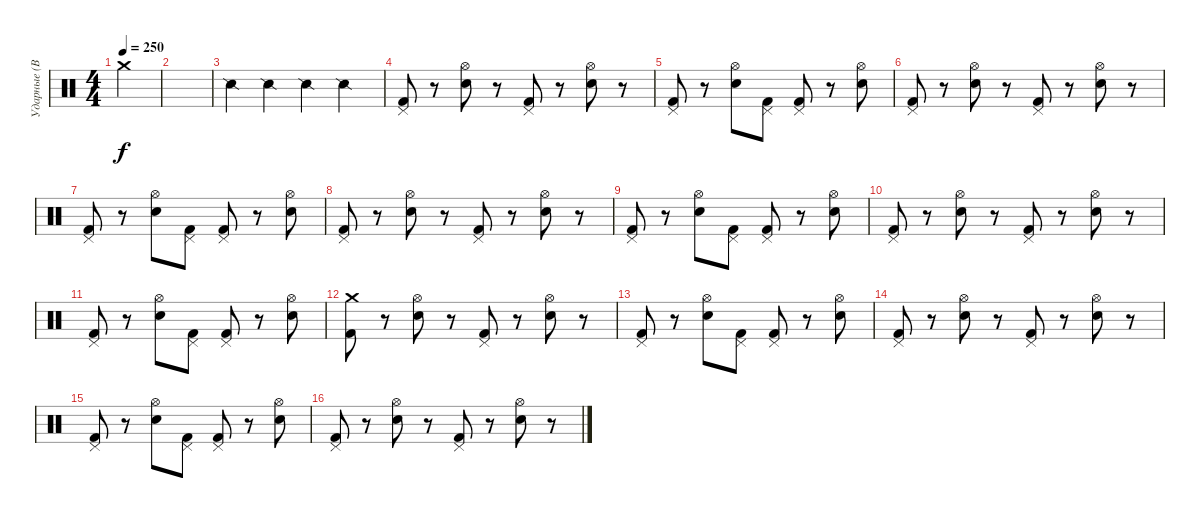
\track ("Ударные (Вася)" "Ударные (В") {instrument percussion}
\staff {score}
\articulation defaults
\ts (4 4)
\tempo 250
\clef neutral
\ks c "Crash medium (hit)".4{dy f}
|
|
"Snare (side stick) 2".4 "Snare (side stick) 2".4 "Snare (side stick) 2".4 "Snare (side stick) 2".4 |
("Pedal Hi-Hat (hit)" "Kick (hit) 2").8 r.8 ("Hi-Hat (open)" "Electric Snare (hit)").8 r.8 ("Pedal Hi-Hat (hit)" "Kick (hit) 2").8 r.8 ("Hi-Hat (open)" "Electric Snare (hit)").8 r.8 |
("Pedal Hi-Hat (hit)" "Kick (hit) 2").8 r.8 ("Hi-Hat (open)" "Electric Snare (hit)").8 ("Pedal Hi-Hat (hit)" "Kick (hit) 2").8 ("Pedal Hi-Hat (hit)" "Kick (hit) 2").8 r.8 ("Hi-Hat (open)" "Electric Snare (hit)").8 |
("Pedal Hi-Hat (hit)" "Kick (hit) 2").8 r.8 ("Hi-Hat (open)" "Electric Snare (hit)").8 r.8 ("Pedal Hi-Hat (hit)" "Kick (hit) 2").8 r.8 ("Hi-Hat (open)" "Electric Snare (hit)").8 r.8 |
("Pedal Hi-Hat (hit)" "Kick (hit) 2").8 r.8 ("Hi-Hat (open)" "Electric Snare (hit)").8 ("Pedal Hi-Hat (hit)" "Kick (hit) 2").8 ("Pedal Hi-Hat (hit)" "Kick (hit) 2").8 r.8 ("Hi-Hat (open)" "Electric Snare (hit)").8 |
("Pedal Hi-Hat (hit)" "Kick (hit) 2").8 r.8 ("Hi-Hat (open)" "Electric Snare (hit)").8 r.8 ("Pedal Hi-Hat (hit)" "Kick (hit) 2").8 r.8 ("Hi-Hat (open)" "Electric Snare (hit)").8 r.8 |
("Pedal Hi-Hat (hit)" "Kick (hit) 2").8 r.8 ("Hi-Hat (open)" "Electric Snare (hit)").8 ("Pedal Hi-Hat (hit)" "Kick (hit) 2").8 ("Pedal Hi-Hat (hit)" "Kick (hit) 2").8 r.8 ("Hi-Hat (open)" "Electric Snare (hit)").8 |
("Pedal Hi-Hat (hit)" "Kick (hit) 2").8 r.8 ("Hi-Hat (open)" "Electric Snare (hit)").8 r.8 ("Pedal Hi-Hat (hit)" "Kick (hit) 2").8 r.8 ("Hi-Hat (open)" "Electric Snare (hit)").8 r.8 |
("Pedal Hi-Hat (hit)" "Kick (hit) 2").8 r.8 ("Hi-Hat (open)" "Electric Snare (hit)").8 ("Pedal Hi-Hat (hit)" "Kick (hit) 2").8 ("Pedal Hi-Hat (hit)" "Kick (hit) 2").8 r.8 ("Hi-Hat (open)" "Electric Snare (hit)").8 |
("Crash medium (hit)" "Kick (hit) 2").8 r.8 ("Hi-Hat (open)" "Electric Snare (hit)").8 r.8 ("Pedal Hi-Hat (hit)" "Kick (hit) 2").8 r.8 ("Hi-Hat (open)" "Electric Snare (hit)").8 r.8 |
("Pedal Hi-Hat (hit)" "Kick (hit) 2").8 r.8 ("Hi-Hat (open)" "Electric Snare (hit)").8 ("Pedal Hi-Hat (hit)" "Kick (hit) 2").8 ("Pedal Hi-Hat (hit)" "Kick (hit) 2").8 r.8 ("Hi-Hat (open)" "Electric Snare (hit)").8 |
("Pedal Hi-Hat (hit)" "Kick (hit) 2").8 r.8 ("Hi-Hat (open)" "Electric Snare (hit)").8 r.8 ("Pedal Hi-Hat (hit)" "Kick (hit) 2").8 r.8 ("Hi-Hat (open)" "Electric Snare (hit)").8 r.8 |
("Pedal Hi-Hat (hit)" "Kick (hit) 2").8 r.8 ("Hi-Hat (open)" "Electric Snare (hit)").8 ("Pedal Hi-Hat (hit)" "Kick (hit) 2").8 ("Pedal Hi-Hat (hit)" "Kick (hit) 2").8 r.8 ("Hi-Hat (open)" "Electric Snare (hit)").8 |
("Pedal Hi-Hat (hit)" "Kick (hit) 2").8 r.8 ("Hi-Hat (open)" "Electric Snare (hit)").8 r.8 ("Pedal Hi-Hat (hit)" "Kick (hit) 2").8 r.8 ("Hi-Hat (open)" "Electric Snare (hit)").8 r.8
